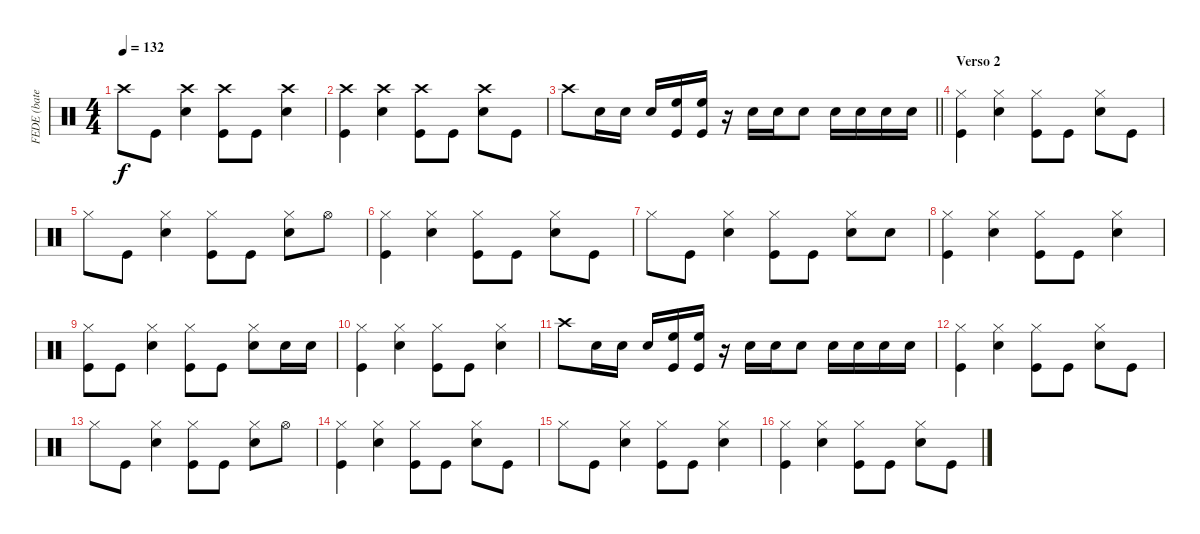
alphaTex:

\track ("FEDE (bateria)" "FEDE (bate") {instrument percussion}
\staff {score}
\articulation defaults
\ts (4 4)
\tempo 132
\clef neutral
\ks c "Crash high (hit)".8{dy f} "Kick (hit)".8
("Crash high (hit)" "Snare (hit) 2").4 ("Crash high (hit)" "Kick (hit)").8 "Kick (hit)".8 ("Crash high (hit)" "Snare (hit) 2").4 |
("Crash high (hit)" "Kick (hit)").4 ("Crash high (hit)" "Snare (hit) 2").4 ("Crash high (hit)" "Kick (hit)").8 "Kick (hit)".8 ("Crash high (hit)" "Snare (hit) 2").8 "Kick (hit)".8 |
\barLineRight lightlight "Crash high (hit)".8 "Snare (hit) 2".16 "Snare (hit) 2".16 "Snare (hit) 2".16
("High Floor Tom (hit)" "Kick (hit)").16 ("High Floor Tom (hit)" "Kick (hit)").16 r.16 "Snare (hit) 2".16 "Snare (hit) 2".16 "Snare (hit) 2".8 "Snare (hit) 2".16 "Snare (hit) 2".16 "Snare (hit) 2".16 "Snare (hit) 2".16 |
\section ("" "Verso 2")
("Hi-Hat (closed)" "Kick (hit)").4 ("Hi-Hat (closed)" "Snare (hit) 2").4 ("Hi-Hat (closed)" "Kick (hit)").8 "Kick (hit)".8 ("Hi-Hat (closed)" "Snare (hit) 2").8 "Kick (hit)".8 |
"Hi-Hat (closed)".8 "Kick (hit)".8 ("Hi-Hat (closed)" "Snare (hit) 2").4 ("Hi-Hat (closed)" "Kick (hit)").8 "Kick (hit)".8 ("Hi-Hat (closed)" "Snare (hit) 2").8 "Hi-Hat (open)".8 |
("Hi-Hat (closed)" "Kick (hit)").4 ("Hi-Hat (closed)" "Snare (hit) 2").4 ("Hi-Hat (closed)" "Kick (hit)").8 "Kick (hit)".8 ("Hi-Hat (closed)" "Snare (hit) 2").8 "Kick (hit)".8 |
"Hi-Hat (closed)".8 "Kick (hit)".8 ("Hi-Hat (closed)" "Snare (hit) 2").4 ("Hi-Hat (closed)" "Kick (hit)").8 "Kick (hit)".8 ("Hi-Hat (closed)" "Snare (hit) 2").8 "Snare (hit) 2".8 |
("Hi-Hat (closed)" "Kick (hit)").4 ("Hi-Hat (closed)" "Snare (hit) 2").4 ("Hi-Hat (closed)" "Kick (hit)").8 "Kick (hit)".8 ("Hi-Hat (closed)" "Snare (hit) 2").4 |
("Hi-Hat (closed)" "Kick (hit)").8 "Kick (hit)".8 ("Hi-Hat (closed)" "Snare (hit) 2").4 ("Hi-Hat (closed)" "Kick (hit)").8 "Kick (hit)".8 ("Hi-Hat (closed)" "Snare (hit) 2").8 "Snare (hit) 2".16 "Snare (hit) 2".16 |
("Hi-Hat (closed)" "Kick (hit)").4 ("Hi-Hat (closed)" "Snare (hit) 2").4 ("Hi-Hat (closed)" "Kick (hit)").8 "Kick (hit)".8 ("Hi-Hat (closed)" "Snare (hit) 2").4 |
"Crash high (hit)".8 "Snare (hit) 2".16 "Snare (hit) 2".16 "Snare (hit) 2".16 ("High Floor Tom (hit)" "Kick (hit)").16 ("High Floor Tom (hit)" "Kick (hit)").16 r.16 "Snare (hit) 2".16 "Snare (hit) 2".16 "Snare (hit) 2".8 "Snare (hit) 2".16 "Snare (hit) 2".16 "Snare (hit) 2".16 "Snare (hit) 2".16 |
("Hi-Hat (closed)" "Kick (hit)").4 ("Hi-Hat (closed)" "Snare (hit) 2").4 ("Hi-Hat (closed)" "Kick (hit)").8 "Kick (hit)".8 ("Hi-Hat (closed)" "Snare (hit) 2").8 "Kick (hit)".8 |
"Hi-Hat (closed)".8 "Kick (hit)".8 ("Hi-Hat (closed)" "Snare (hit) 2").4 ("Hi-Hat (closed)" "Kick (hit)").8 "Kick (hit)".8 ("Hi-Hat (closed)" "Snare (hit) 2").8 "Hi-Hat (open)".8 |
("Hi-Hat (closed)" "Kick (hit)").4 ("Hi-Hat (closed)" "Snare (hit) 2").4 ("Hi-Hat (closed)" "Kick (hit)").8 "Kick (hit)".8 ("Hi-Hat (closed)" "Snare (hit) 2").8 "Kick (hit)".8 |
"Hi-Hat (closed)".8 "Kick (hit)".8 ("Hi-Hat (closed)" "Snare (hit) 2").4 ("Hi-Hat (closed)" "Kick (hit)").8 "Kick (hit)".8 ("Hi-Hat (closed)" "Snare (hit) 2").4 |
("Hi-Hat (closed)" "Kick (hit)").4 ("Hi-Hat (closed)" "Snare (hit) 2").4 ("Hi-Hat (closed)" "Kick (hit)").8 "Kick (hit)".8 ("Hi-Hat (closed)" "Snare (hit) 2").8 "Kick (hit)".8
